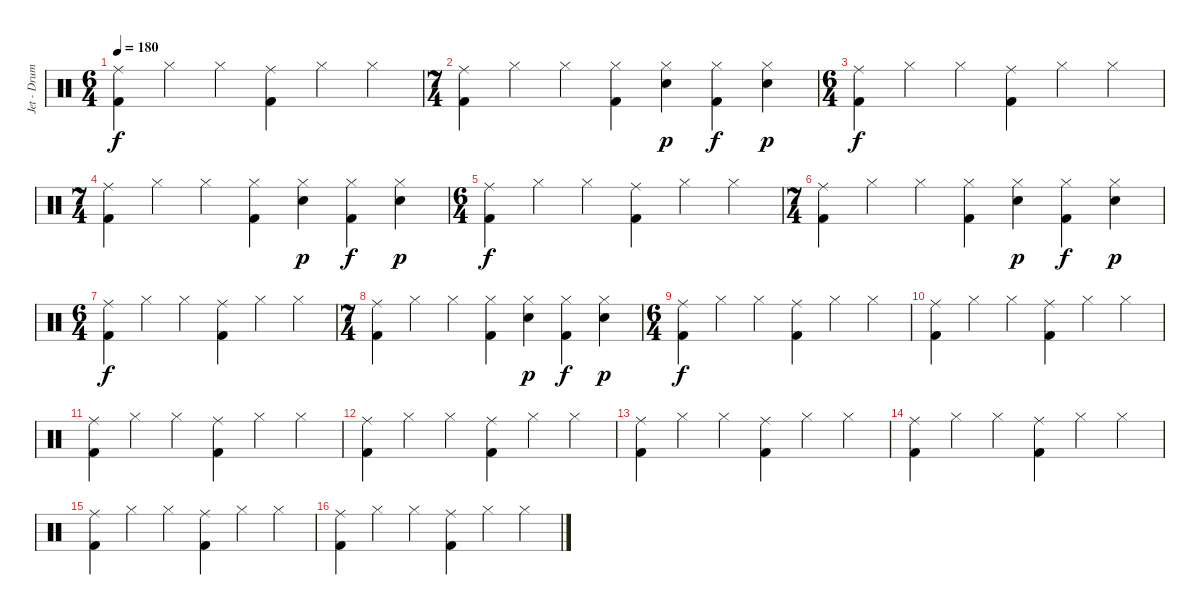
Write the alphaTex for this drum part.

\track ("Jet - Drums" "Jet - Drum") {instrument percussion}
\staff {score}
\articulation defaults
\ts (6 4)
\tempo 180
\clef neutral
\ks c
("Ride (middle)" "Kick (hit) 2").4{dy f} "Hi-Hat (closed)".4 "Hi-Hat (closed)".4 ("Ride (middle)" "Kick (hit) 2").4 "Hi-Hat (closed)".4 "Hi-Hat (closed)".4 |
\ts (7 4)
("Ride (middle)" "Kick (hit) 2").4 "Hi-Hat (closed)".4 "Hi-Hat (closed)".4 ("Hi-Hat (closed)" "Kick (hit) 2").4 ("Hi-Hat (closed)" "Electric Snare (hit)").4{dy p} ("Hi-Hat (closed)" "Kick (hit) 2").4{dy f} ("Hi-Hat (closed)" "Electric Snare (hit)").4{dy p} |
\ts (6 4)
("Ride (middle)" "Kick (hit) 2").4{dy f} "Hi-Hat (closed)".4 "Hi-Hat (closed)".4 ("Ride (middle)" "Kick (hit) 2").4 "Hi-Hat (closed)".4 "Hi-Hat (closed)".4 |
\ts (7 4)
("Ride (middle)" "Kick (hit) 2").4 "Hi-Hat (closed)".4 "Hi-Hat (closed)".4 ("Hi-Hat (closed)" "Kick (hit) 2").4 ("Hi-Hat (closed)" "Electric Snare (hit)").4{dy p} ("Hi-Hat (closed)" "Kick (hit) 2").4{dy f} ("Hi-Hat (closed)" "Electric Snare (hit)").4{dy p} |
\ts (6 4)
("Ride (middle)" "Kick (hit) 2").4{dy f} "Hi-Hat (closed)".4 "Hi-Hat (closed)".4 ("Ride (middle)" "Kick (hit) 2").4 "Hi-Hat (closed)".4 "Hi-Hat (closed)".4 |
\ts (7 4)
("Ride (middle)" "Kick (hit) 2").4 "Hi-Hat (closed)".4 "Hi-Hat (closed)".4 ("Hi-Hat (closed)" "Kick (hit) 2").4 ("Hi-Hat (closed)" "Electric Snare (hit)").4{dy p} ("Hi-Hat (closed)" "Kick (hit) 2").4{dy f} ("Hi-Hat (closed)" "Electric Snare (hit)").4{dy p} |
\ts (6 4)
("Ride (middle)" "Kick (hit) 2").4{dy f} "Hi-Hat (closed)".4 "Hi-Hat (closed)".4 ("Ride (middle)" "Kick (hit) 2").4 "Hi-Hat (closed)".4 "Hi-Hat (closed)".4 |
\ts (7 4)
("Ride (middle)" "Kick (hit) 2").4 "Hi-Hat (closed)".4 "Hi-Hat (closed)".4 ("Hi-Hat (closed)" "Kick (hit) 2").4 ("Hi-Hat (closed)" "Electric Snare (hit)").4{dy p} ("Hi-Hat (closed)" "Kick (hit) 2").4{dy f} ("Hi-Hat (closed)" "Electric Snare (hit)").4{dy p} |
\ts (6 4)
("Ride (middle)" "Kick (hit) 2").4{dy f} "Hi-Hat (closed)".4 "Hi-Hat (closed)".4 ("Ride (middle)" "Kick (hit) 2").4 "Hi-Hat (closed)".4 "Hi-Hat (closed)".4 |
("Ride (middle)" "Kick (hit) 2").4 "Hi-Hat (closed)".4 "Hi-Hat (closed)".4 ("Ride (middle)" "Kick (hit) 2").4 "Hi-Hat (closed)".4 "Hi-Hat (closed)".4 |
("Ride (middle)" "Kick (hit) 2").4 "Hi-Hat (closed)".4 "Hi-Hat (closed)".4 ("Ride (middle)" "Kick (hit) 2").4 "Hi-Hat (closed)".4 "Hi-Hat (closed)".4 |
("Ride (middle)" "Kick (hit) 2").4 "Hi-Hat (closed)".4 "Hi-Hat (closed)".4 ("Ride (middle)" "Kick (hit) 2").4 "Hi-Hat (closed)".4 "Hi-Hat (closed)".4 |
("Ride (middle)" "Kick (hit) 2").4 "Hi-Hat (closed)".4 "Hi-Hat (closed)".4 ("Ride (middle)" "Kick (hit) 2").4 "Hi-Hat (closed)".4 "Hi-Hat (closed)".4 |
("Ride (middle)" "Kick (hit) 2").4 "Hi-Hat (closed)".4 "Hi-Hat (closed)".4 ("Ride (middle)" "Kick (hit) 2").4 "Hi-Hat (closed)".4 "Hi-Hat (closed)".4 |
("Ride (middle)" "Kick (hit) 2").4 "Hi-Hat (closed)".4 "Hi-Hat (closed)".4 ("Ride (middle)" "Kick (hit) 2").4 "Hi-Hat (closed)".4 "Hi-Hat (closed)".4 |
("Ride (middle)" "Kick (hit) 2").4 "Hi-Hat (closed)".4 "Hi-Hat (closed)".4 ("Ride (middle)" "Kick (hit) 2").4 "Hi-Hat (closed)".4 "Hi-Hat (closed)".4
